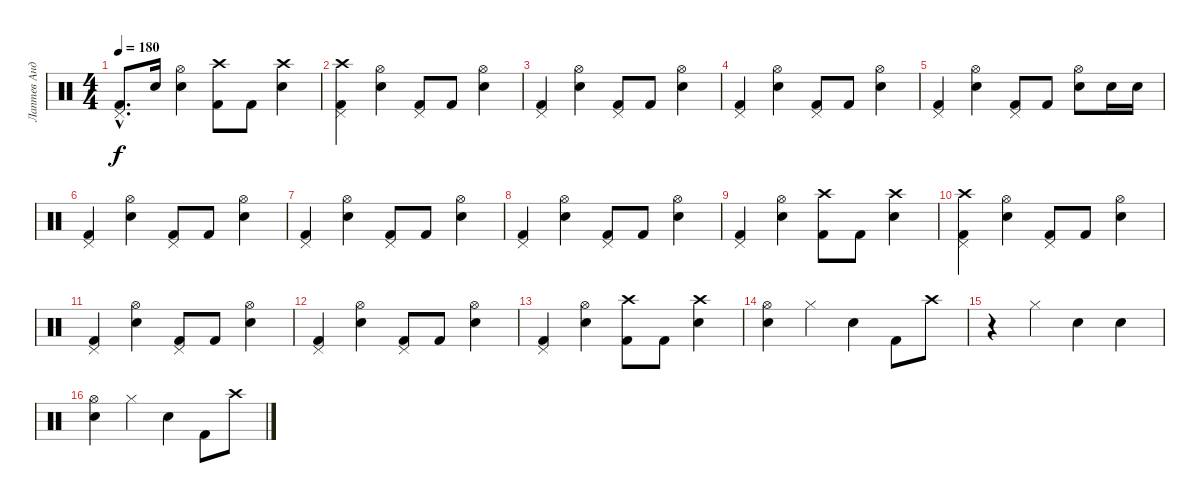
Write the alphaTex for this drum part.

\track ("Лаптев Андрей" "Лаптев Анд") {instrument percussion}
\staff {score}
\articulation defaults
\ts (4 4)
\tempo 180
\clef neutral
\ks c
("Kick (hit) 2"{hac} "Pedal Hi-Hat (hit)"{hac}).8{d dy f} "Snare (hit) 2".16 ("Snare (hit) 2" "Hi-Hat (open)").4 ("Kick (hit) 2" "Crash high (hit)").8 "Kick (hit) 2".8 ("Snare (hit) 2" "Crash high (hit)").4 |
("Kick (hit) 2" "Crash high (hit)" "Pedal Hi-Hat (hit)").4 ("Snare (hit) 2" "Hi-Hat (open)").4 ("Kick (hit) 2" "Pedal Hi-Hat (hit)").8 "Kick (hit) 2".8 ("Snare (hit) 2" "Hi-Hat (open)").4 |
("Kick (hit) 2" "Pedal Hi-Hat (hit)").4 ("Snare (hit) 2" "Hi-Hat (open)").4 ("Kick (hit) 2" "Pedal Hi-Hat (hit)").8 "Kick (hit) 2".8 ("Snare (hit) 2" "Hi-Hat (open)").4 |
("Kick (hit) 2" "Pedal Hi-Hat (hit)").4 ("Snare (hit) 2" "Hi-Hat (open)").4 ("Kick (hit) 2" "Pedal Hi-Hat (hit)").8 "Kick (hit) 2".8 ("Snare (hit) 2" "Hi-Hat (open)").4 |
("Kick (hit) 2" "Pedal Hi-Hat (hit)").4 ("Snare (hit) 2" "Hi-Hat (open)").4 ("Kick (hit) 2" "Pedal Hi-Hat (hit)").8 "Kick (hit) 2".8 ("Snare (hit) 2" "Hi-Hat (open)").8 "Snare (hit) 2".16 "Snare (hit) 2".16 |
("Kick (hit) 2" "Pedal Hi-Hat (hit)").4 ("Snare (hit) 2" "Hi-Hat (open)").4 ("Kick (hit) 2" "Pedal Hi-Hat (hit)").8 "Kick (hit) 2".8 ("Snare (hit) 2" "Hi-Hat (open)").4 |
("Kick (hit) 2" "Pedal Hi-Hat (hit)").4 ("Snare (hit) 2" "Hi-Hat (open)").4 ("Kick (hit) 2" "Pedal Hi-Hat (hit)").8 "Kick (hit) 2".8 ("Snare (hit) 2" "Hi-Hat (open)").4 |
("Kick (hit) 2" "Pedal Hi-Hat (hit)").4 ("Snare (hit) 2" "Hi-Hat (open)").4 ("Kick (hit) 2" "Pedal Hi-Hat (hit)").8 "Kick (hit) 2".8 ("Snare (hit) 2" "Hi-Hat (open)").4 |
("Kick (hit) 2" "Pedal Hi-Hat (hit)").4 ("Snare (hit) 2" "Hi-Hat (open)").4 ("Kick (hit) 2" "Crash high (hit)").8 "Kick (hit) 2".8 ("Snare (hit) 2" "Crash high (hit)").4 |
("Kick (hit) 2" "Crash high (hit)" "Pedal Hi-Hat (hit)").4 ("Snare (hit) 2" "Hi-Hat (open)").4 ("Kick (hit) 2" "Pedal Hi-Hat (hit)").8 "Kick (hit) 2".8 ("Snare (hit) 2" "Hi-Hat (open)").4 |
("Kick (hit) 2" "Pedal Hi-Hat (hit)").4 ("Snare (hit) 2" "Hi-Hat (open)").4 ("Kick (hit) 2" "Pedal Hi-Hat (hit)").8 "Kick (hit) 2".8 ("Snare (hit) 2" "Hi-Hat (open)").4 |
("Kick (hit) 2" "Pedal Hi-Hat (hit)").4 ("Snare (hit) 2" "Hi-Hat (open)").4 ("Kick (hit) 2" "Pedal Hi-Hat (hit)").8 "Kick (hit) 2".8 ("Snare (hit) 2" "Hi-Hat (open)").4 |
("Kick (hit) 2" "Pedal Hi-Hat (hit)").4 ("Snare (hit) 2" "Hi-Hat (open)").4 ("Kick (hit) 2" "Crash high (hit)").8 "Kick (hit) 2".8 ("Snare (hit) 2" "Crash high (hit)").4 |
("Snare (hit) 2" "Hi-Hat (open)").4 "Hi-Hat (closed)".4 "Snare (hit) 2".4 "Kick (hit) 2".8 "Crash high (hit)".8 |
r.4 "Hi-Hat (closed)".4 "Snare (hit) 2".4 "Snare (hit) 2".4 |
("Snare (hit) 2" "Hi-Hat (open)").4 "Hi-Hat (closed)".4 "Snare (hit) 2".4 "Kick (hit) 2".8 "Crash high (hit)".8
